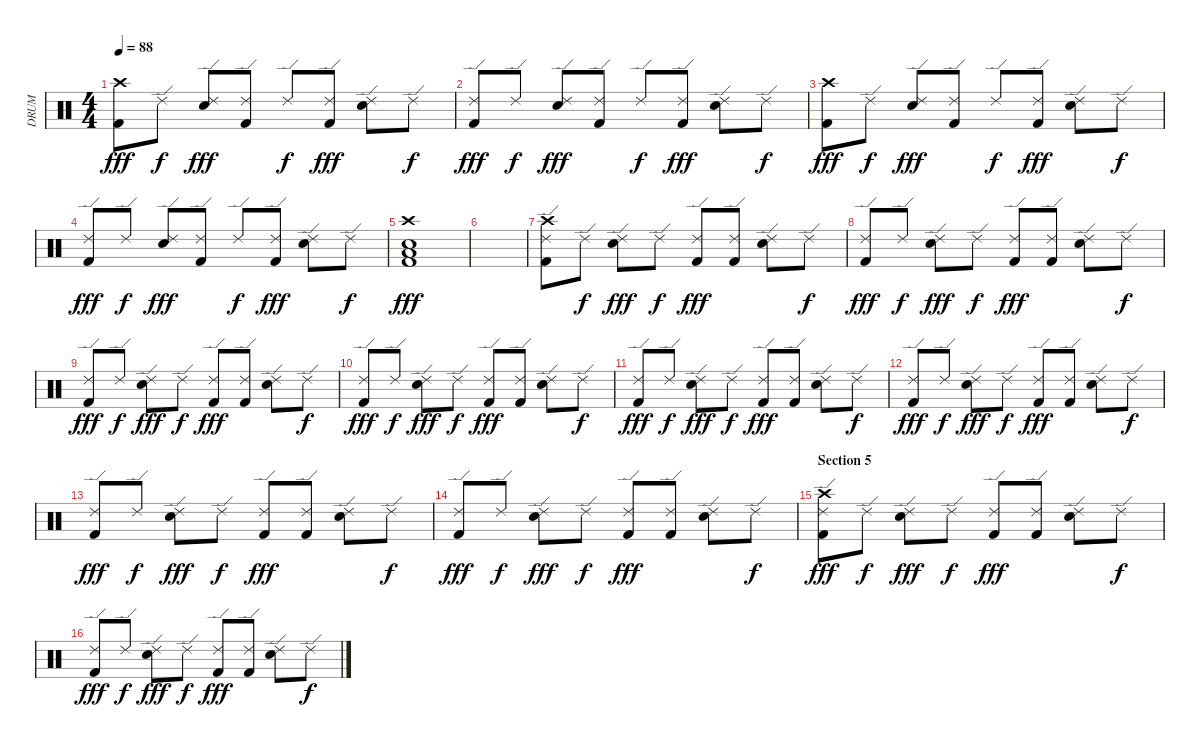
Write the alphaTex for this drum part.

\track ("DRUM" "DRUM") {instrument percussion}
\staff {score}
\articulation defaults
\ts (4 4)
\tempo 88
\clef neutral
\ks c
("Crash high (hit)" "Kick (hit) 2").8{dy fff} "Ride (edge) 2".8{dy f} ("Ride (edge) 2" "Snare (hit) 2").8{dy fff} ("Ride (edge) 2" "Kick (hit) 2").8 "Ride (edge) 2".8{dy f} ("Ride (edge) 2" "Kick (hit) 2").8{dy fff} ("Ride (edge) 2" "Snare (hit) 2").8 "Ride (edge) 2".8{dy f} |
("Ride (edge) 2" "Kick (hit) 2").8{dy fff} "Ride (edge) 2".8{dy f} ("Ride (edge) 2" "Snare (hit) 2").8{dy fff} ("Ride (edge) 2" "Kick (hit) 2").8 "Ride (edge) 2".8{dy f} ("Ride (edge) 2" "Kick (hit) 2").8{dy fff} ("Ride (edge) 2" "Snare (hit) 2").8 "Ride (edge) 2".8{dy f} |
("Crash high (hit)" "Kick (hit) 2").8{dy fff} "Ride (edge) 2".8{dy f} ("Ride (edge) 2" "Snare (hit) 2").8{dy fff} ("Ride (edge) 2" "Kick (hit) 2").8 "Ride (edge) 2".8{dy f} ("Ride (edge) 2" "Kick (hit) 2").8{dy fff} ("Ride (edge) 2" "Snare (hit) 2").8 "Ride (edge) 2".8{dy f} |
("Ride (edge) 2" "Kick (hit) 2").8{dy fff} "Ride (edge) 2".8{dy f} ("Ride (edge) 2" "Snare (hit) 2").8{dy fff} ("Ride (edge) 2" "Kick (hit) 2").8 "Ride (edge) 2".8{dy f} ("Ride (edge) 2" "Kick (hit) 2").8{dy fff} ("Ride (edge) 2" "Snare (hit) 2").8 "Ride (edge) 2".8{dy f} |
("Crash high (hit)" "Low Tom (hit)" "Snare (hit) 2" "Kick (hit) 2").1{dy fff} |
|
("Ride (edge) 2" "Crash high (hit)" "Kick (hit) 2").8 "Ride (edge) 2".8{dy f} ("Ride (edge) 2" "Snare (hit) 2").8{dy fff} "Ride (edge) 2".8{dy f} ("Ride (edge) 2" "Kick (hit) 2").8{dy fff} ("Ride (edge) 2" "Kick (hit) 2").8 ("Ride (edge) 2" "Snare (hit) 2").8 "Ride (edge) 2".8{dy f} |
("Ride (edge) 2" "Kick (hit) 2").8{dy fff} "Ride (edge) 2".8{dy f} ("Ride (edge) 2" "Snare (hit) 2").8{dy fff} "Ride (edge) 2".8{dy f} ("Ride (edge) 2" "Kick (hit) 2").8{dy fff} ("Ride (edge) 2" "Kick (hit) 2").8 ("Ride (edge) 2" "Snare (hit) 2").8 "Ride (edge) 2".8{dy f} |
("Ride (edge) 2" "Kick (hit) 2").8{dy fff} "Ride (edge) 2".8{dy f} ("Ride (edge) 2" "Snare (hit) 2").8{dy fff} "Ride (edge) 2".8{dy f} ("Ride (edge) 2" "Kick (hit) 2").8{dy fff} ("Ride (edge) 2" "Kick (hit) 2").8 ("Ride (edge) 2" "Snare (hit) 2").8 "Ride (edge) 2".8{dy f} |
("Ride (edge) 2" "Kick (hit) 2").8{dy fff} "Ride (edge) 2".8{dy f} ("Ride (edge) 2" "Snare (hit) 2").8{dy fff} "Ride (edge) 2".8{dy f} ("Ride (edge) 2" "Kick (hit) 2").8{dy fff} ("Ride (edge) 2" "Kick (hit) 2").8 ("Ride (edge) 2" "Snare (hit) 2").8 "Ride (edge) 2".8{dy f} |
("Ride (edge) 2" "Kick (hit) 2").8{dy fff} "Ride (edge) 2".8{dy f} ("Ride (edge) 2" "Snare (hit) 2").8{dy fff} "Ride (edge) 2".8{dy f} ("Ride (edge) 2" "Kick (hit) 2").8{dy fff} ("Ride (edge) 2" "Kick (hit) 2").8 ("Ride (edge) 2" "Snare (hit) 2").8 "Ride (edge) 2".8{dy f} |
("Ride (edge) 2" "Kick (hit) 2").8{dy fff} "Ride (edge) 2".8{dy f} ("Ride (edge) 2" "Snare (hit) 2").8{dy fff} "Ride (edge) 2".8{dy f} ("Ride (edge) 2" "Kick (hit) 2").8{dy fff} ("Ride (edge) 2" "Kick (hit) 2").8 ("Ride (edge) 2" "Snare (hit) 2").8 "Ride (edge) 2".8{dy f} |
("Ride (edge) 2" "Kick (hit) 2").8{dy fff} "Ride (edge) 2".8{dy f} ("Ride (edge) 2" "Snare (hit) 2").8{dy fff} "Ride (edge) 2".8{dy f} ("Ride (edge) 2" "Kick (hit) 2").8{dy fff} ("Ride (edge) 2" "Kick (hit) 2").8 ("Ride (edge) 2" "Snare (hit) 2").8 "Ride (edge) 2".8{dy f} |
("Ride (edge) 2" "Kick (hit) 2").8{dy fff} "Ride (edge) 2".8{dy f} ("Ride (edge) 2" "Snare (hit) 2").8{dy fff} "Ride (edge) 2".8{dy f} ("Ride (edge) 2" "Kick (hit) 2").8{dy fff} ("Ride (edge) 2" "Kick (hit) 2").8 ("Ride (edge) 2" "Snare (hit) 2").8 "Ride (edge) 2".8{dy f} |
\section ("" "Section 5")
("Ride (edge) 2" "Crash high (hit)" "Kick (hit) 2").8{dy fff} "Ride (edge) 2".8{dy f} ("Ride (edge) 2" "Snare (hit) 2").8{dy fff} "Ride (edge) 2".8{dy f} ("Ride (edge) 2" "Kick (hit) 2").8{dy fff} ("Ride (edge) 2" "Kick (hit) 2").8 ("Ride (edge) 2" "Snare (hit) 2").8 "Ride (edge) 2".8{dy f} |
("Ride (edge) 2" "Kick (hit) 2").8{dy fff} "Ride (edge) 2".8{dy f} ("Ride (edge) 2" "Snare (hit) 2").8{dy fff} "Ride (edge) 2".8{dy f} ("Ride (edge) 2" "Kick (hit) 2").8{dy fff} ("Ride (edge) 2" "Kick (hit) 2").8 ("Ride (edge) 2" "Snare (hit) 2").8 "Ride (edge) 2".8{dy f}
